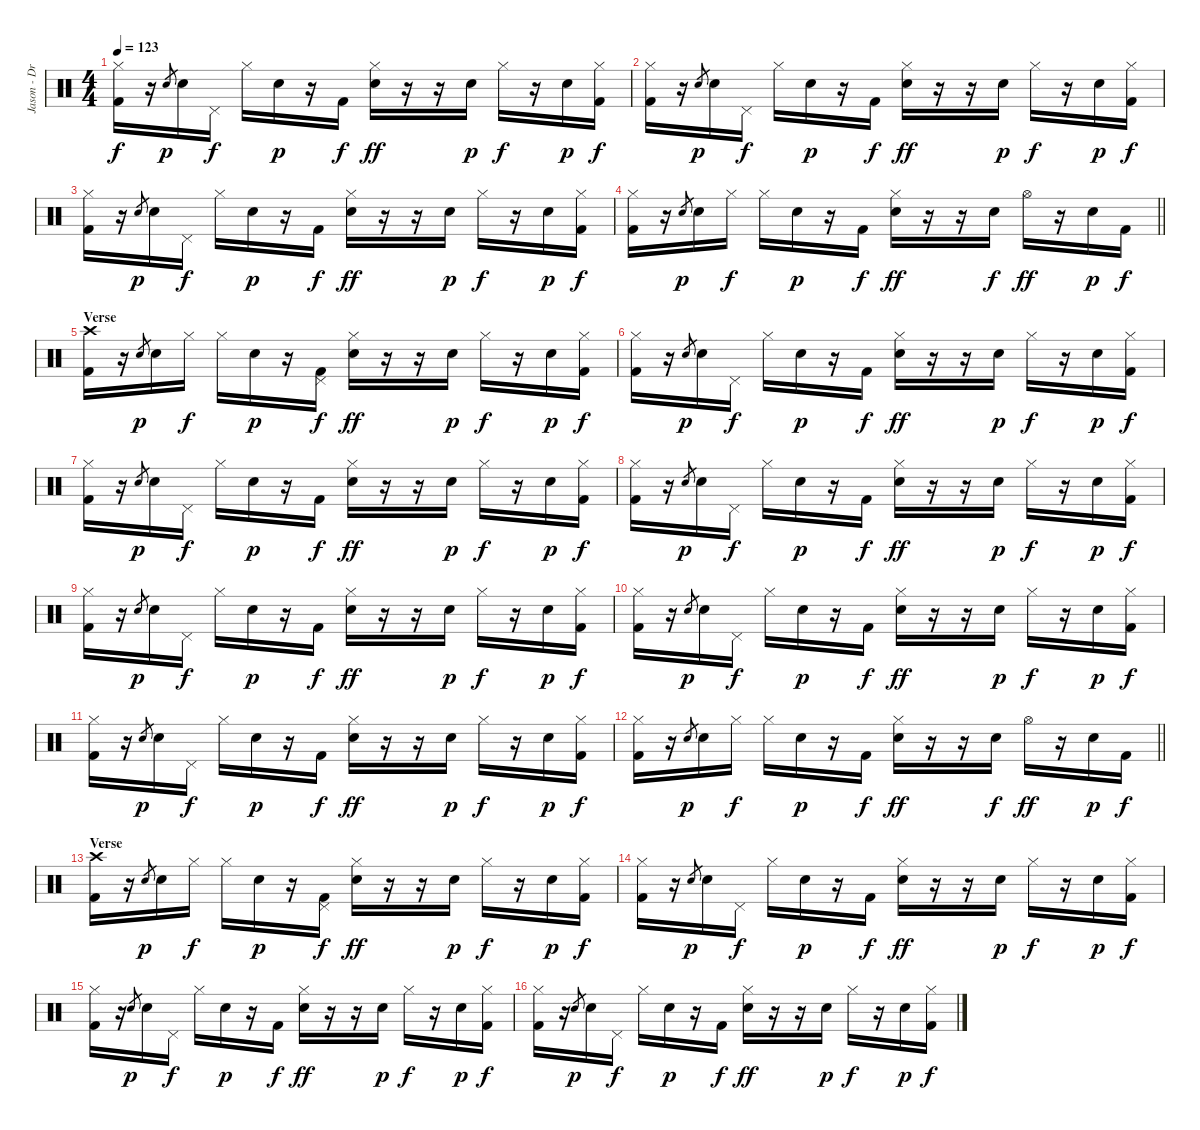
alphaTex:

\track ("Jason - Drums" "Jason - Dr") {instrument percussion}
\staff {score}
\articulation defaults
\ts (4 4)
\tempo 123
\clef neutral
\ks c
("Hi-Hat (closed)" "Kick (hit) 2").16{dy f} r.16 "Snare (hit) 2".8{gr dy p} "Snare (hit) 2".16 "Pedal Hi-Hat (hit)".16{dy f} "Hi-Hat (closed)".16 "Snare (hit) 2".16{dy p} r.16 "Kick (hit) 2".16{dy f} ("Hi-Hat (closed)" "Electric Snare (hit)").16{dy ff} r.16 r.16 "Snare (hit) 2".16{dy p} "Hi-Hat (closed)".16{dy f} r.16 "Snare (hit) 2".16{dy p} ("Hi-Hat (closed)" "Kick (hit) 2").16{dy f} |
("Hi-Hat (closed)" "Kick (hit) 2").16 r.16 "Snare (hit) 2".8{gr dy p} "Snare (hit) 2".16 "Pedal Hi-Hat (hit)".16{dy f} "Hi-Hat (closed)".16 "Snare (hit) 2".16{dy p} r.16 "Kick (hit) 2".16{dy f} ("Hi-Hat (closed)" "Electric Snare (hit)").16{dy ff} r.16 r.16 "Snare (hit) 2".16{dy p} "Hi-Hat (closed)".16{dy f} r.16 "Snare (hit) 2".16{dy p} ("Hi-Hat (closed)" "Kick (hit) 2").16{dy f} |
("Hi-Hat (closed)" "Kick (hit) 2").16 r.16 "Snare (hit) 2".8{gr dy p} "Snare (hit) 2".16 "Pedal Hi-Hat (hit)".16{dy f} "Hi-Hat (closed)".16 "Snare (hit) 2".16{dy p} r.16 "Kick (hit) 2".16{dy f} ("Hi-Hat (closed)" "Electric Snare (hit)").16{dy ff} r.16 r.16 "Snare (hit) 2".16{dy p} "Hi-Hat (closed)".16{dy f} r.16 "Snare (hit) 2".16{dy p} ("Hi-Hat (closed)" "Kick (hit) 2").16{dy f} |
\barLineRight lightlight
("Hi-Hat (closed)" "Kick (hit) 2").16 r.16 "Snare (hit) 2".8{gr dy p} "Snare (hit) 2".16 "Hi-Hat (closed)".16{dy f} "Hi-Hat (closed)".16 "Snare (hit) 2".16{dy p} r.16 "Kick (hit) 2".16{dy f} ("Hi-Hat (closed)" "Electric Snare (hit)").16{dy ff} r.16 r.16 "Electric Snare (hit)".16{dy f} "Hi-Hat (open)".16{dy ff} r.16 "Snare (hit) 2".16{dy p} "Kick (hit) 2".16{dy f} |
\section ("" "Verse")
("Crash high (hit)" "Kick (hit) 2").16 r.16 "Snare (hit) 2".8{gr dy p} "Snare (hit) 2".16 "Hi-Hat (closed)".16{dy f} "Hi-Hat (closed)".16 "Snare (hit) 2".16{dy p} r.16 ("Pedal Hi-Hat (hit)" "Kick (hit) 2").16{dy f} ("Hi-Hat (closed)" "Electric Snare (hit)").16{dy ff} r.16 r.16 "Snare (hit) 2".16{dy p} "Hi-Hat (closed)".16{dy f} r.16 "Snare (hit) 2".16{dy p} ("Hi-Hat (closed)" "Kick (hit) 2").16{dy f} |
("Hi-Hat (closed)" "Kick (hit) 2").16 r.16 "Snare (hit) 2".8{gr dy p} "Snare (hit) 2".16 "Pedal Hi-Hat (hit)".16{dy f} "Hi-Hat (closed)".16 "Snare (hit) 2".16{dy p} r.16 "Kick (hit) 2".16{dy f} ("Hi-Hat (closed)" "Electric Snare (hit)").16{dy ff} r.16 r.16 "Snare (hit) 2".16{dy p} "Hi-Hat (closed)".16{dy f} r.16 "Snare (hit) 2".16{dy p} ("Hi-Hat (closed)" "Kick (hit) 2").16{dy f} |
("Hi-Hat (closed)" "Kick (hit) 2").16 r.16 "Snare (hit) 2".8{gr dy p} "Snare (hit) 2".16 "Pedal Hi-Hat (hit)".16{dy f} "Hi-Hat (closed)".16 "Snare (hit) 2".16{dy p} r.16 "Kick (hit) 2".16{dy f} ("Hi-Hat (closed)" "Electric Snare (hit)").16{dy ff} r.16 r.16 "Snare (hit) 2".16{dy p} "Hi-Hat (closed)".16{dy f} r.16 "Snare (hit) 2".16{dy p} ("Hi-Hat (closed)" "Kick (hit) 2").16{dy f} |
("Hi-Hat (closed)" "Kick (hit) 2").16 r.16 "Snare (hit) 2".8{gr dy p} "Snare (hit) 2".16 "Pedal Hi-Hat (hit)".16{dy f} "Hi-Hat (closed)".16 "Snare (hit) 2".16{dy p} r.16 "Kick (hit) 2".16{dy f} ("Hi-Hat (closed)" "Electric Snare (hit)").16{dy ff} r.16 r.16 "Snare (hit) 2".16{dy p} "Hi-Hat (closed)".16{dy f} r.16 "Snare (hit) 2".16{dy p} ("Hi-Hat (closed)" "Kick (hit) 2").16{dy f} |
("Hi-Hat (closed)" "Kick (hit) 2").16 r.16 "Snare (hit) 2".8{gr dy p} "Snare (hit) 2".16 "Pedal Hi-Hat (hit)".16{dy f} "Hi-Hat (closed)".16 "Snare (hit) 2".16{dy p} r.16 "Kick (hit) 2".16{dy f} ("Hi-Hat (closed)" "Electric Snare (hit)").16{dy ff} r.16 r.16 "Snare (hit) 2".16{dy p} "Hi-Hat (closed)".16{dy f} r.16 "Snare (hit) 2".16{dy p} ("Hi-Hat (closed)" "Kick (hit) 2").16{dy f} |
("Hi-Hat (closed)" "Kick (hit) 2").16 r.16 "Snare (hit) 2".8{gr dy p} "Snare (hit) 2".16 "Pedal Hi-Hat (hit)".16{dy f} "Hi-Hat (closed)".16 "Snare (hit) 2".16{dy p} r.16 "Kick (hit) 2".16{dy f} ("Hi-Hat (closed)" "Electric Snare (hit)").16{dy ff} r.16 r.16 "Snare (hit) 2".16{dy p} "Hi-Hat (closed)".16{dy f} r.16 "Snare (hit) 2".16{dy p} ("Hi-Hat (closed)" "Kick (hit) 2").16{dy f} |
("Hi-Hat (closed)" "Kick (hit) 2").16 r.16 "Snare (hit) 2".8{gr dy p} "Snare (hit) 2".16 "Pedal Hi-Hat (hit)".16{dy f} "Hi-Hat (closed)".16 "Snare (hit) 2".16{dy p} r.16 "Kick (hit) 2".16{dy f} ("Hi-Hat (closed)" "Electric Snare (hit)").16{dy ff} r.16 r.16 "Snare (hit) 2".16{dy p} "Hi-Hat (closed)".16{dy f} r.16 "Snare (hit) 2".16{dy p} ("Hi-Hat (closed)" "Kick (hit) 2").16{dy f} |
\barLineRight lightlight
("Hi-Hat (closed)" "Kick (hit) 2").16 r.16 "Snare (hit) 2".8{gr dy p} "Snare (hit) 2".16 "Hi-Hat (closed)".16{dy f} "Hi-Hat (closed)".16 "Snare (hit) 2".16{dy p} r.16 "Kick (hit) 2".16{dy f} ("Hi-Hat (closed)" "Electric Snare (hit)").16{dy ff} r.16 r.16 "Electric Snare (hit)".16{dy f} "Hi-Hat (open)".16{dy ff} r.16 "Snare (hit) 2".16{dy p} "Kick (hit) 2".16{dy f} |
\section ("" "Verse")
("Crash high (hit)" "Kick (hit) 2").16 r.16 "Snare (hit) 2".8{gr dy p} "Snare (hit) 2".16 "Hi-Hat (closed)".16{dy f} "Hi-Hat (closed)".16 "Snare (hit) 2".16{dy p} r.16 ("Pedal Hi-Hat (hit)" "Kick (hit) 2").16{dy f} ("Hi-Hat (closed)" "Electric Snare (hit)").16{dy ff} r.16 r.16 "Snare (hit) 2".16{dy p} "Hi-Hat (closed)".16{dy f} r.16 "Snare (hit) 2".16{dy p} ("Hi-Hat (closed)" "Kick (hit) 2").16{dy f} |
("Hi-Hat (closed)" "Kick (hit) 2").16 r.16 "Snare (hit) 2".8{gr dy p} "Snare (hit) 2".16 "Pedal Hi-Hat (hit)".16{dy f} "Hi-Hat (closed)".16 "Snare (hit) 2".16{dy p} r.16 "Kick (hit) 2".16{dy f} ("Hi-Hat (closed)" "Electric Snare (hit)").16{dy ff} r.16 r.16 "Snare (hit) 2".16{dy p} "Hi-Hat (closed)".16{dy f} r.16 "Snare (hit) 2".16{dy p} ("Hi-Hat (closed)" "Kick (hit) 2").16{dy f} |
("Hi-Hat (closed)" "Kick (hit) 2").16 r.16 "Snare (hit) 2".8{gr dy p} "Snare (hit) 2".16 "Pedal Hi-Hat (hit)".16{dy f} "Hi-Hat (closed)".16 "Snare (hit) 2".16{dy p} r.16 "Kick (hit) 2".16{dy f} ("Hi-Hat (closed)" "Electric Snare (hit)").16{dy ff} r.16 r.16 "Snare (hit) 2".16{dy p} "Hi-Hat (closed)".16{dy f} r.16 "Snare (hit) 2".16{dy p} ("Hi-Hat (closed)" "Kick (hit) 2").16{dy f} |
("Hi-Hat (closed)" "Kick (hit) 2").16 r.16 "Snare (hit) 2".8{gr dy p} "Snare (hit) 2".16 "Pedal Hi-Hat (hit)".16{dy f} "Hi-Hat (closed)".16 "Snare (hit) 2".16{dy p} r.16 "Kick (hit) 2".16{dy f} ("Hi-Hat (closed)" "Electric Snare (hit)").16{dy ff} r.16 r.16 "Snare (hit) 2".16{dy p} "Hi-Hat (closed)".16{dy f} r.16 "Snare (hit) 2".16{dy p} ("Hi-Hat (closed)" "Kick (hit) 2").16{dy f}
